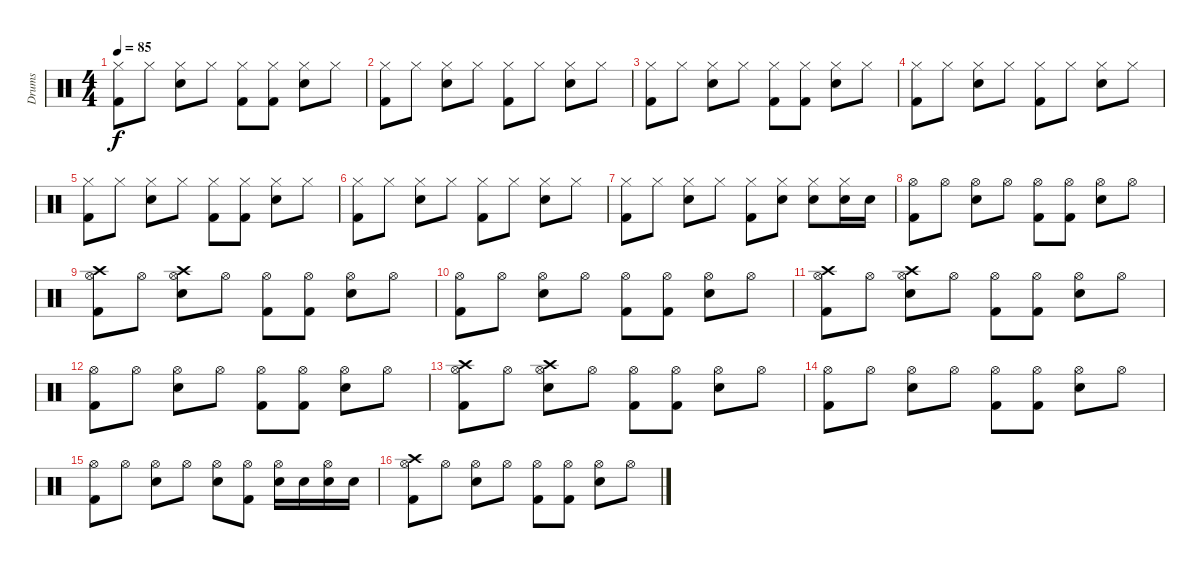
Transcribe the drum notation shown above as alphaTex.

\track ("Drums" "Drums") {instrument percussion}
\staff {score}
\articulation defaults
\ts (4 4)
\tempo 85
\clef neutral
\ks c
("Hi-Hat (closed)" "Kick (hit) 2").8{dy f} "Hi-Hat (closed)".8 ("Hi-Hat (closed)" "Snare (hit) 2").8 "Hi-Hat (closed)".8 ("Hi-Hat (closed)" "Kick (hit) 2").8 ("Hi-Hat (closed)" "Kick (hit) 2").8 ("Hi-Hat (closed)" "Snare (hit) 2").8 "Hi-Hat (closed)".8 |
("Hi-Hat (closed)" "Kick (hit) 2").8 "Hi-Hat (closed)".8 ("Hi-Hat (closed)" "Snare (hit) 2").8 "Hi-Hat (closed)".8 ("Hi-Hat (closed)" "Kick (hit) 2").8 "Hi-Hat (closed)".8 ("Hi-Hat (closed)" "Snare (hit) 2").8 "Hi-Hat (closed)".8 |
("Hi-Hat (closed)" "Kick (hit) 2").8 "Hi-Hat (closed)".8 ("Hi-Hat (closed)" "Snare (hit) 2").8 "Hi-Hat (closed)".8 ("Hi-Hat (closed)" "Kick (hit) 2").8 ("Hi-Hat (closed)" "Kick (hit) 2").8 ("Hi-Hat (closed)" "Snare (hit) 2").8 "Hi-Hat (closed)".8 |
("Hi-Hat (closed)" "Kick (hit) 2").8 "Hi-Hat (closed)".8 ("Hi-Hat (closed)" "Snare (hit) 2").8 "Hi-Hat (closed)".8 ("Hi-Hat (closed)" "Kick (hit) 2").8 "Hi-Hat (closed)".8 ("Hi-Hat (closed)" "Snare (hit) 2").8 "Hi-Hat (closed)".8 |
("Hi-Hat (closed)" "Kick (hit) 2").8 "Hi-Hat (closed)".8 ("Hi-Hat (closed)" "Snare (hit) 2").8 "Hi-Hat (closed)".8 ("Hi-Hat (closed)" "Kick (hit) 2").8 ("Hi-Hat (closed)" "Kick (hit) 2").8 ("Hi-Hat (closed)" "Snare (hit) 2").8 "Hi-Hat (closed)".8 |
("Hi-Hat (closed)" "Kick (hit) 2").8 "Hi-Hat (closed)".8 ("Hi-Hat (closed)" "Snare (hit) 2").8 "Hi-Hat (closed)".8 ("Hi-Hat (closed)" "Kick (hit) 2").8 "Hi-Hat (closed)".8 ("Hi-Hat (closed)" "Snare (hit) 2").8 "Hi-Hat (closed)".8 |
("Hi-Hat (closed)" "Kick (hit) 2").8 "Hi-Hat (closed)".8 ("Hi-Hat (closed)" "Snare (hit) 2").8 "Hi-Hat (closed)".8 ("Hi-Hat (closed)" "Kick (hit) 2").8 ("Hi-Hat (closed)" "Snare (hit) 2").8 ("Hi-Hat (closed)" "Snare (hit) 2").8 ("Hi-Hat (closed)" "Snare (hit) 2").16 "Snare (hit) 2".16 |
("Hi-Hat (open)" "Kick (hit) 2").8 "Hi-Hat (open)".8 ("Hi-Hat (open)" "Snare (hit) 2").8 "Hi-Hat (open)".8 ("Hi-Hat (open)" "Kick (hit) 2").8 ("Hi-Hat (open)" "Kick (hit) 2").8 ("Hi-Hat (open)" "Snare (hit) 2").8 "Hi-Hat (open)".8 |
("Hi-Hat (open)" "Crash high (hit)" "Kick (hit) 2").8 "Hi-Hat (open)".8 ("Hi-Hat (open)" "Crash high (hit)" "Snare (hit) 2").8 "Hi-Hat (open)".8 ("Hi-Hat (open)" "Kick (hit) 2").8 ("Hi-Hat (open)" "Kick (hit) 2").8 ("Hi-Hat (open)" "Snare (hit) 2").8 "Hi-Hat (open)".8 |
("Hi-Hat (open)" "Kick (hit) 2").8 "Hi-Hat (open)".8 ("Hi-Hat (open)" "Snare (hit) 2").8 "Hi-Hat (open)".8 ("Hi-Hat (open)" "Kick (hit) 2").8 ("Hi-Hat (open)" "Kick (hit) 2").8 ("Hi-Hat (open)" "Snare (hit) 2").8 "Hi-Hat (open)".8 |
("Hi-Hat (open)" "Crash high (hit)" "Kick (hit) 2").8 "Hi-Hat (open)".8 ("Hi-Hat (open)" "Crash high (hit)" "Snare (hit) 2").8 "Hi-Hat (open)".8 ("Hi-Hat (open)" "Kick (hit) 2").8 ("Hi-Hat (open)" "Kick (hit) 2").8 ("Hi-Hat (open)" "Snare (hit) 2").8 "Hi-Hat (open)".8 |
("Hi-Hat (open)" "Kick (hit) 2").8 "Hi-Hat (open)".8 ("Hi-Hat (open)" "Snare (hit) 2").8 "Hi-Hat (open)".8 ("Hi-Hat (open)" "Kick (hit) 2").8 ("Hi-Hat (open)" "Kick (hit) 2").8 ("Hi-Hat (open)" "Snare (hit) 2").8 "Hi-Hat (open)".8 |
("Hi-Hat (open)" "Crash high (hit)" "Kick (hit) 2").8 "Hi-Hat (open)".8 ("Hi-Hat (open)" "Crash high (hit)" "Snare (hit) 2").8 "Hi-Hat (open)".8 ("Hi-Hat (open)" "Kick (hit) 2").8 ("Hi-Hat (open)" "Kick (hit) 2").8 ("Hi-Hat (open)" "Snare (hit) 2").8 "Hi-Hat (open)".8 |
("Hi-Hat (open)" "Kick (hit) 2").8 "Hi-Hat (open)".8 ("Hi-Hat (open)" "Snare (hit) 2").8 "Hi-Hat (open)".8 ("Hi-Hat (open)" "Kick (hit) 2").8 ("Hi-Hat (open)" "Kick (hit) 2").8 ("Hi-Hat (open)" "Snare (hit) 2").8 "Hi-Hat (open)".8 |
("Hi-Hat (open)" "Kick (hit) 2").8 "Hi-Hat (open)".8 ("Hi-Hat (open)" "Snare (hit) 2").8 "Hi-Hat (open)".8 ("Hi-Hat (open)" "Snare (hit) 2").8 ("Hi-Hat (open)" "Kick (hit) 2").8 ("Hi-Hat (open)" "Snare (hit) 2").16 "Snare (hit) 2".16 ("Hi-Hat (open)" "Snare (hit) 2").16 "Snare (hit) 2".16 |
("Hi-Hat (open)" "Crash high (hit)" "Kick (hit) 2").8 "Hi-Hat (open)".8 ("Hi-Hat (open)" "Snare (hit) 2").8 "Hi-Hat (open)".8 ("Hi-Hat (open)" "Kick (hit) 2").8 ("Hi-Hat (open)" "Kick (hit) 2").8 ("Hi-Hat (open)" "Snare (hit) 2").8 "Hi-Hat (open)".8
